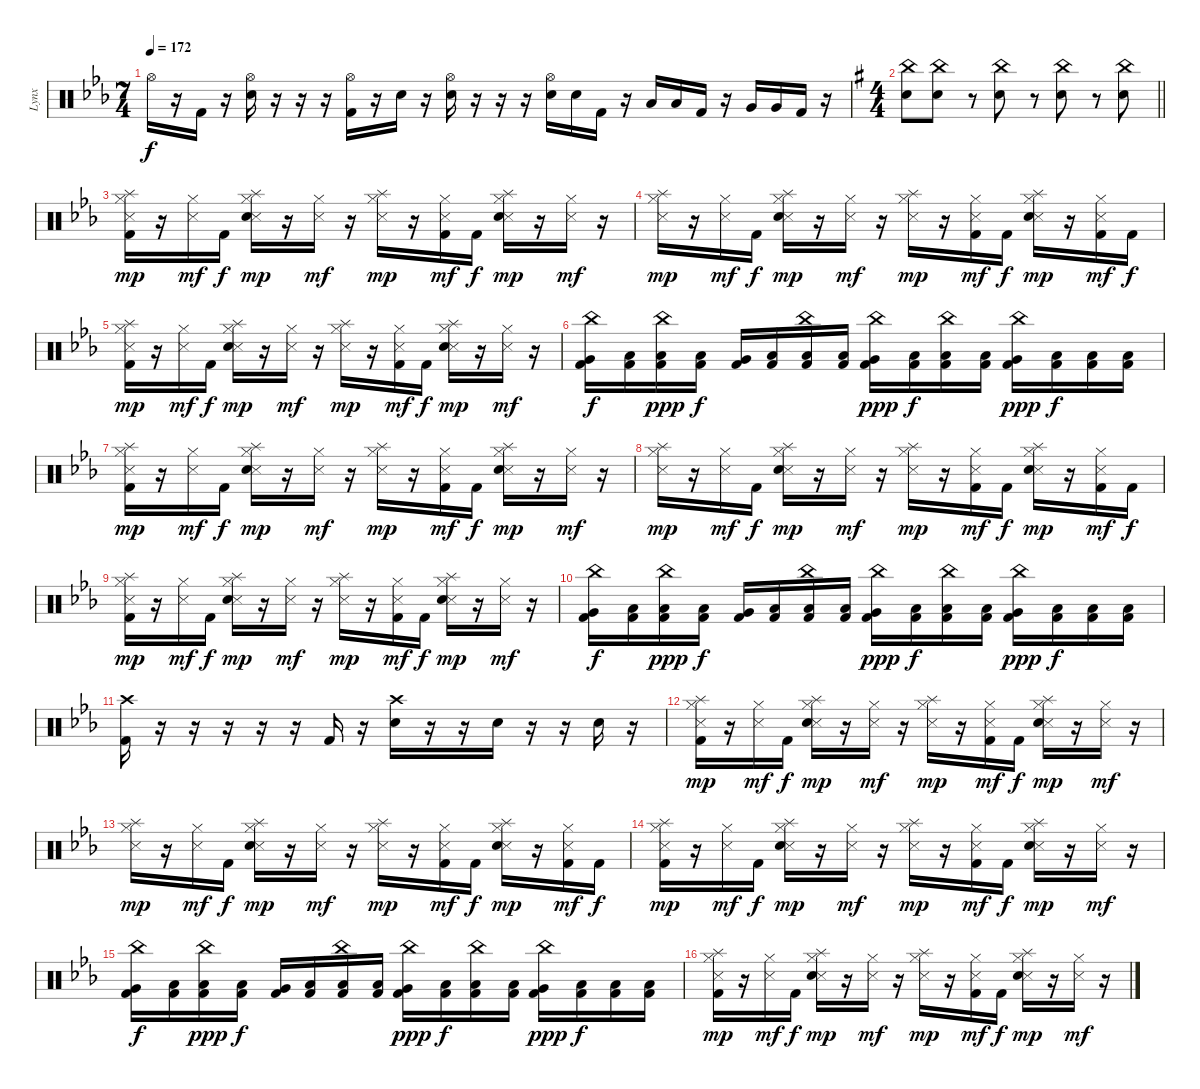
\track ("Lynx" "Lynx") {instrument percussion}
\staff {score}
\articulation defaults
\ts (7 4)
\tempo 172
\clef neutral
\ks eb "Hi-Hat (open)".16{dy f}
r.16 "Kick (hit) 2".16 r.16 ("Hi-Hat (open)" "Electric Snare (hit)").16 r.16 r.16 r.16 ("Hi-Hat (open)" "Kick (hit) 2").16 r.16 "Electric Snare (hit)".16 r.16 ("Hi-Hat (open)" "Electric Snare (hit)").16 r.16 r.16 r.16 ("Hi-Hat (open)" "Electric Snare (hit)").16 "Electric Snare (hit)".16 "Kick (hit) 2".16 r.16 "Low Tom (hit)".16 "Low Tom (hit)".16 "Kick (hit) 2".16 r.16 "Very Low Tom (hit)".16 "Very Low Tom (hit)".16 "Kick (hit) 2".16 r.16 |
\ts (4 4)
\barLineRight lightlight
\ks g
("China (hit)" "Electric Snare (hit)").8 ("China (hit)" "Electric Snare (hit)").8 r.8 ("China (hit)" "Electric Snare (hit)").8 r.8 ("China (hit)" "Electric Snare (hit)").8 r.8 ("China (hit)" "Electric Snare (hit)").8 |
\section ("" "")
\ks eb
("Hi-Hat (closed)" "Snare (side stick) 3" "Splash (hit)" "Kick (hit) 2").16{dy mp} r.16 ("Hi-Hat (closed)" "Snare (side stick) 3").16{dy mf} "Kick (hit) 2".16{dy f} ("Hi-Hat (closed)" "Snare (side stick) 3" "Splash (hit)" "Electric Snare (hit)").16{dy mp} r.16 ("Hi-Hat (closed)" "Snare (side stick) 3").16{dy mf} r.16 ("Hi-Hat (closed)" "Snare (side stick) 3" "Splash (hit)").16{dy mp} r.16 ("Hi-Hat (closed)" "Snare (side stick) 3" "Kick (hit) 2").16{dy mf} "Kick (hit) 2".16{dy f} ("Hi-Hat (closed)" "Snare (side stick) 3" "Splash (hit)" "Electric Snare (hit)").16{dy mp} r.16 ("Hi-Hat (closed)" "Snare (side stick) 3").16{dy mf} r.16 |
("Hi-Hat (closed)" "Snare (side stick) 3" "Splash (hit)").16{dy mp} r.16 ("Hi-Hat (closed)" "Snare (side stick) 3").16{dy mf} "Kick (hit) 2".16{dy f} ("Hi-Hat (closed)" "Snare (side stick) 3" "Splash (hit)" "Electric Snare (hit)").16{dy mp} r.16 ("Hi-Hat (closed)" "Snare (side stick) 3").16{dy mf} r.16 ("Hi-Hat (closed)" "Snare (side stick) 3" "Splash (hit)").16{dy mp} r.16 ("Hi-Hat (closed)" "Snare (side stick) 3" "Kick (hit) 2").16{dy mf} "Kick (hit) 2".16{dy f} ("Hi-Hat (closed)" "Snare (side stick) 3" "Splash (hit)" "Electric Snare (hit)").16{dy mp} r.16 ("Hi-Hat (closed)" "Snare (side stick) 3" "Kick (hit) 2").16{dy mf} "Kick (hit) 2".16{dy f} |
("Hi-Hat (closed)" "Snare (side stick) 3" "Splash (hit)" "Kick (hit) 2").16{dy mp} r.16 ("Hi-Hat (closed)" "Snare (side stick) 3").16{dy mf} "Kick (hit) 2".16{dy f} ("Hi-Hat (closed)" "Snare (side stick) 3" "Splash (hit)" "Electric Snare (hit)").16{dy mp} r.16 ("Hi-Hat (closed)" "Snare (side stick) 3").16{dy mf} r.16 ("Hi-Hat (closed)" "Snare (side stick) 3" "Splash (hit)").16{dy mp} r.16 ("Hi-Hat (closed)" "Snare (side stick) 3" "Kick (hit) 2").16{dy mf} "Kick (hit) 2".16{dy f} ("Hi-Hat (closed)" "Snare (side stick) 3" "Splash (hit)" "Electric Snare (hit)").16{dy mp} r.16 ("Hi-Hat (closed)" "Snare (side stick) 3").16{dy mf} r.16 |
("China (hit)" "Very Low Tom (hit)" "Kick (hit) 2").16{dy f} ("Low Floor Tom (hit)" "Kick (hit) 2").16 ("China (hit)" "Low Floor Tom (hit)" "Kick (hit) 2").16{dy ppp} ("Low Floor Tom (hit)" "Kick (hit) 2").16{dy f} ("Very Low Tom (hit)" "Kick (hit) 2").16 ("Low Floor Tom (hit)" "Kick (hit) 2").16 ("China (hit)" "Low Floor Tom (hit)" "Kick (hit) 2").16 ("Low Floor Tom (hit)" "Kick (hit) 2").16 ("China (hit)" "Very Low Tom (hit)" "Kick (hit) 2").16{dy ppp} ("Low Floor Tom (hit)" "Kick (hit) 2").16{dy f} ("China (hit)" "Low Floor Tom (hit)" "Kick (hit) 2").16 ("Low Floor Tom (hit)" "Kick (hit) 2").16 ("China (hit)" "Very Low Tom (hit)" "Kick (hit) 2").16{dy ppp} ("Low Floor Tom (hit)" "Kick (hit) 2").16{dy f} ("Low Floor Tom (hit)" "Kick (hit) 2").16 ("Low Floor Tom (hit)" "Kick (hit) 2").16 |
("Hi-Hat (closed)" "Snare (side stick) 3" "Splash (hit)" "Kick (hit) 2").16{dy mp} r.16 ("Hi-Hat (closed)" "Snare (side stick) 3").16{dy mf} "Kick (hit) 2".16{dy f} ("Hi-Hat (closed)" "Snare (side stick) 3" "Splash (hit)" "Electric Snare (hit)").16{dy mp} r.16 ("Hi-Hat (closed)" "Snare (side stick) 3").16{dy mf} r.16 ("Hi-Hat (closed)" "Snare (side stick) 3" "Splash (hit)").16{dy mp} r.16 ("Hi-Hat (closed)" "Snare (side stick) 3" "Kick (hit) 2").16{dy mf} "Kick (hit) 2".16{dy f} ("Hi-Hat (closed)" "Snare (side stick) 3" "Splash (hit)" "Electric Snare (hit)").16{dy mp} r.16 ("Hi-Hat (closed)" "Snare (side stick) 3").16{dy mf} r.16 |
("Hi-Hat (closed)" "Snare (side stick) 3" "Splash (hit)").16{dy mp} r.16 ("Hi-Hat (closed)" "Snare (side stick) 3").16{dy mf} "Kick (hit) 2".16{dy f} ("Hi-Hat (closed)" "Snare (side stick) 3" "Splash (hit)" "Electric Snare (hit)").16{dy mp} r.16 ("Hi-Hat (closed)" "Snare (side stick) 3").16{dy mf} r.16 ("Hi-Hat (closed)" "Snare (side stick) 3" "Splash (hit)").16{dy mp} r.16 ("Hi-Hat (closed)" "Snare (side stick) 3" "Kick (hit) 2").16{dy mf} "Kick (hit) 2".16{dy f} ("Hi-Hat (closed)" "Snare (side stick) 3" "Splash (hit)" "Electric Snare (hit)").16{dy mp} r.16 ("Hi-Hat (closed)" "Snare (side stick) 3" "Kick (hit) 2").16{dy mf} "Kick (hit) 2".16{dy f} |
("Hi-Hat (closed)" "Snare (side stick) 3" "Splash (hit)" "Kick (hit) 2").16{dy mp} r.16 ("Hi-Hat (closed)" "Snare (side stick) 3").16{dy mf} "Kick (hit) 2".16{dy f} ("Hi-Hat (closed)" "Snare (side stick) 3" "Splash (hit)" "Electric Snare (hit)").16{dy mp} r.16 ("Hi-Hat (closed)" "Snare (side stick) 3").16{dy mf} r.16 ("Hi-Hat (closed)" "Snare (side stick) 3" "Splash (hit)").16{dy mp} r.16 ("Hi-Hat (closed)" "Snare (side stick) 3" "Kick (hit) 2").16{dy mf} "Kick (hit) 2".16{dy f} ("Hi-Hat (closed)" "Snare (side stick) 3" "Splash (hit)" "Electric Snare (hit)").16{dy mp} r.16 ("Hi-Hat (closed)" "Snare (side stick) 3").16{dy mf} r.16 |
("China (hit)" "Very Low Tom (hit)" "Kick (hit) 2").16{dy f} ("Low Floor Tom (hit)" "Kick (hit) 2").16 ("China (hit)" "Low Floor Tom (hit)" "Kick (hit) 2").16{dy ppp} ("Low Floor Tom (hit)" "Kick (hit) 2").16{dy f} ("Very Low Tom (hit)" "Kick (hit) 2").16 ("Low Floor Tom (hit)" "Kick (hit) 2").16 ("China (hit)" "Low Floor Tom (hit)" "Kick (hit) 2").16 ("Low Floor Tom (hit)" "Kick (hit) 2").16 ("China (hit)" "Very Low Tom (hit)" "Kick (hit) 2").16{dy ppp} ("Low Floor Tom (hit)" "Kick (hit) 2").16{dy f} ("China (hit)" "Low Floor Tom (hit)" "Kick (hit) 2").16 ("Low Floor Tom (hit)" "Kick (hit) 2").16 ("China (hit)" "Very Low Tom (hit)" "Kick (hit) 2").16{dy ppp} ("Low Floor Tom (hit)" "Kick (hit) 2").16{dy f} ("Low Floor Tom (hit)" "Kick (hit) 2").16 ("Low Floor Tom (hit)" "Kick (hit) 2").16 |
("Crash high (hit)" "Kick (hit) 2").16 r.16 r.16 r.16 r.16 r.16 "Kick (hit) 2".16 r.16 ("Crash high (hit)" "Electric Snare (hit)").16 r.16 r.16 "Electric Snare (hit)".16 r.16 r.16 "Electric Snare (hit)".16 r.16 |
("Hi-Hat (closed)" "Snare (side stick) 3" "Splash (hit)" "Kick (hit) 2").16{dy mp} r.16 ("Hi-Hat (closed)" "Snare (side stick) 3").16{dy mf} "Kick (hit) 2".16{dy f} ("Hi-Hat (closed)" "Snare (side stick) 3" "Splash (hit)" "Electric Snare (hit)").16{dy mp} r.16 ("Hi-Hat (closed)" "Snare (side stick) 3").16{dy mf} r.16 ("Hi-Hat (closed)" "Snare (side stick) 3" "Splash (hit)").16{dy mp} r.16 ("Hi-Hat (closed)" "Snare (side stick) 3" "Kick (hit) 2").16{dy mf} "Kick (hit) 2".16{dy f} ("Hi-Hat (closed)" "Snare (side stick) 3" "Splash (hit)" "Electric Snare (hit)").16{dy mp} r.16 ("Hi-Hat (closed)" "Snare (side stick) 3").16{dy mf} r.16 |
("Hi-Hat (closed)" "Snare (side stick) 3" "Splash (hit)").16{dy mp} r.16 ("Hi-Hat (closed)" "Snare (side stick) 3").16{dy mf} "Kick (hit) 2".16{dy f} ("Hi-Hat (closed)" "Snare (side stick) 3" "Splash (hit)" "Electric Snare (hit)").16{dy mp} r.16 ("Hi-Hat (closed)" "Snare (side stick) 3").16{dy mf} r.16 ("Hi-Hat (closed)" "Snare (side stick) 3" "Splash (hit)").16{dy mp} r.16 ("Hi-Hat (closed)" "Snare (side stick) 3" "Kick (hit) 2").16{dy mf} "Kick (hit) 2".16{dy f} ("Hi-Hat (closed)" "Snare (side stick) 3" "Splash (hit)" "Electric Snare (hit)").16{dy mp} r.16 ("Hi-Hat (closed)" "Snare (side stick) 3" "Kick (hit) 2").16{dy mf} "Kick (hit) 2".16{dy f} |
("Hi-Hat (closed)" "Snare (side stick) 3" "Splash (hit)" "Kick (hit) 2").16{dy mp} r.16 ("Hi-Hat (closed)" "Snare (side stick) 3").16{dy mf} "Kick (hit) 2".16{dy f} ("Hi-Hat (closed)" "Snare (side stick) 3" "Splash (hit)" "Electric Snare (hit)").16{dy mp} r.16 ("Hi-Hat (closed)" "Snare (side stick) 3").16{dy mf} r.16 ("Hi-Hat (closed)" "Snare (side stick) 3" "Splash (hit)").16{dy mp} r.16 ("Hi-Hat (closed)" "Snare (side stick) 3" "Kick (hit) 2").16{dy mf} "Kick (hit) 2".16{dy f} ("Hi-Hat (closed)" "Snare (side stick) 3" "Splash (hit)" "Electric Snare (hit)").16{dy mp} r.16 ("Hi-Hat (closed)" "Snare (side stick) 3").16{dy mf} r.16 |
("China (hit)" "Very Low Tom (hit)" "Kick (hit) 2").16{dy f} ("Low Floor Tom (hit)" "Kick (hit) 2").16 ("China (hit)" "Low Floor Tom (hit)" "Kick (hit) 2").16{dy ppp} ("Low Floor Tom (hit)" "Kick (hit) 2").16{dy f} ("Very Low Tom (hit)" "Kick (hit) 2").16 ("Low Floor Tom (hit)" "Kick (hit) 2").16 ("China (hit)" "Low Floor Tom (hit)" "Kick (hit) 2").16 ("Low Floor Tom (hit)" "Kick (hit) 2").16 ("China (hit)" "Very Low Tom (hit)" "Kick (hit) 2").16{dy ppp} ("Low Floor Tom (hit)" "Kick (hit) 2").16{dy f} ("China (hit)" "Low Floor Tom (hit)" "Kick (hit) 2").16 ("Low Floor Tom (hit)" "Kick (hit) 2").16 ("China (hit)" "Very Low Tom (hit)" "Kick (hit) 2").16{dy ppp} ("Low Floor Tom (hit)" "Kick (hit) 2").16{dy f} ("Low Floor Tom (hit)" "Kick (hit) 2").16 ("Low Floor Tom (hit)" "Kick (hit) 2").16 |
("Hi-Hat (closed)" "Snare (side stick) 3" "Splash (hit)" "Kick (hit) 2").16{dy mp} r.16 ("Hi-Hat (closed)" "Snare (side stick) 3").16{dy mf} "Kick (hit) 2".16{dy f} ("Hi-Hat (closed)" "Snare (side stick) 3" "Splash (hit)" "Electric Snare (hit)").16{dy mp} r.16 ("Hi-Hat (closed)" "Snare (side stick) 3").16{dy mf} r.16 ("Hi-Hat (closed)" "Snare (side stick) 3" "Splash (hit)").16{dy mp} r.16 ("Hi-Hat (closed)" "Snare (side stick) 3" "Kick (hit) 2").16{dy mf} "Kick (hit) 2".16{dy f} ("Hi-Hat (closed)" "Snare (side stick) 3" "Splash (hit)" "Electric Snare (hit)").16{dy mp} r.16 ("Hi-Hat (closed)" "Snare (side stick) 3").16{dy mf} r.16
